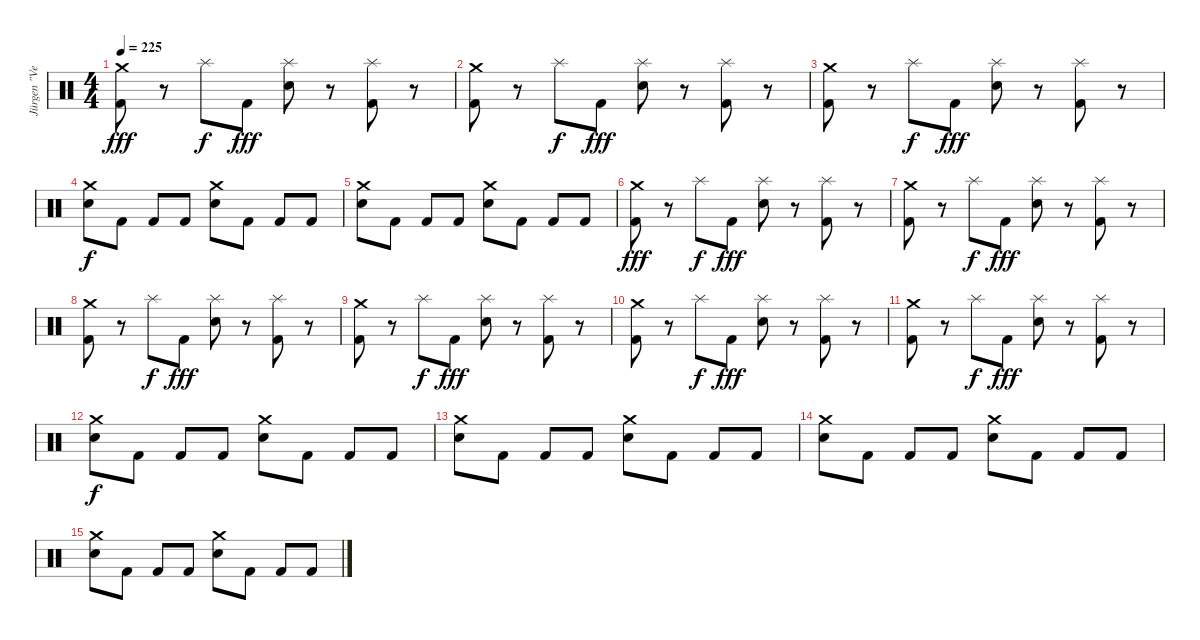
\track ("Jürgen \"Ventor\" Reil" "Jürgen \"Ve") {instrument percussion}
\staff {score}
\articulation defaults
\ts (4 4)
\tempo 225
\clef neutral
\ks c
("Crash medium (hit)" "Kick (hit) 2").8{dy fff} r.8 "Splash (hit)".8{dy f} "Kick (hit) 2".8{dy fff} ("Splash (hit)" "Electric Snare (hit)").8 r.8 ("Splash (hit)" "Kick (hit) 2").8 r.8 |
("Crash medium (hit)" "Kick (hit) 2").8 r.8 "Splash (hit)".8{dy f} "Kick (hit) 2".8{dy fff} ("Splash (hit)" "Electric Snare (hit)").8 r.8 ("Splash (hit)" "Kick (hit) 2").8 r.8 |
("Crash medium (hit)" "Kick (hit) 2").8 r.8 "Splash (hit)".8{dy f} "Kick (hit) 2".8{dy fff} ("Splash (hit)" "Electric Snare (hit)").8 r.8 ("Splash (hit)" "Kick (hit) 2").8 r.8 |
("Crash medium (hit)" "Electric Snare (hit)").8{dy f} "Kick (hit) 2".8 "Kick (hit) 2".8 "Kick (hit) 2".8 ("Crash medium (hit)" "Electric Snare (hit)").8 "Kick (hit) 2".8 "Kick (hit) 2".8 "Kick (hit) 2".8 |
("Crash medium (hit)" "Electric Snare (hit)").8 "Kick (hit) 2".8 "Kick (hit) 2".8 "Kick (hit) 2".8 ("Crash medium (hit)" "Electric Snare (hit)").8 "Kick (hit) 2".8 "Kick (hit) 2".8 "Kick (hit) 2".8 |
("Crash medium (hit)" "Kick (hit) 2").8{dy fff} r.8 "Splash (hit)".8{dy f} "Kick (hit) 2".8{dy fff} ("Splash (hit)" "Electric Snare (hit)").8 r.8 ("Splash (hit)" "Kick (hit) 2").8 r.8 |
("Crash medium (hit)" "Kick (hit) 2").8 r.8 "Splash (hit)".8{dy f} "Kick (hit) 2".8{dy fff} ("Splash (hit)" "Electric Snare (hit)").8 r.8 ("Splash (hit)" "Kick (hit) 2").8 r.8 |
("Crash medium (hit)" "Kick (hit) 2").8 r.8 "Splash (hit)".8{dy f} "Kick (hit) 2".8{dy fff} ("Splash (hit)" "Electric Snare (hit)").8 r.8 ("Splash (hit)" "Kick (hit) 2").8 r.8 |
("Crash medium (hit)" "Kick (hit) 2").8 r.8 "Splash (hit)".8{dy f} "Kick (hit) 2".8{dy fff} ("Splash (hit)" "Electric Snare (hit)").8 r.8 ("Splash (hit)" "Kick (hit) 2").8 r.8 |
("Crash medium (hit)" "Kick (hit) 2").8 r.8 "Splash (hit)".8{dy f} "Kick (hit) 2".8{dy fff} ("Splash (hit)" "Electric Snare (hit)").8 r.8 ("Splash (hit)" "Kick (hit) 2").8 r.8 |
("Crash medium (hit)" "Kick (hit) 2").8 r.8 "Splash (hit)".8{dy f} "Kick (hit) 2".8{dy fff} ("Splash (hit)" "Electric Snare (hit)").8 r.8 ("Splash (hit)" "Kick (hit) 2").8 r.8 |
("Crash medium (hit)" "Electric Snare (hit)").8{dy f} "Kick (hit) 2".8 "Kick (hit) 2".8 "Kick (hit) 2".8 ("Crash medium (hit)" "Electric Snare (hit)").8 "Kick (hit) 2".8 "Kick (hit) 2".8 "Kick (hit) 2".8 |
("Crash medium (hit)" "Electric Snare (hit)").8 "Kick (hit) 2".8 "Kick (hit) 2".8 "Kick (hit) 2".8 ("Crash medium (hit)" "Electric Snare (hit)").8 "Kick (hit) 2".8 "Kick (hit) 2".8 "Kick (hit) 2".8 |
("Crash medium (hit)" "Electric Snare (hit)").8 "Kick (hit) 2".8 "Kick (hit) 2".8 "Kick (hit) 2".8 ("Crash medium (hit)" "Electric Snare (hit)").8 "Kick (hit) 2".8 "Kick (hit) 2".8 "Kick (hit) 2".8 |
("Crash medium (hit)" "Electric Snare (hit)").8 "Kick (hit) 2".8 "Kick (hit) 2".8 "Kick (hit) 2".8 ("Crash medium (hit)" "Electric Snare (hit)").8 "Kick (hit) 2".8 "Kick (hit) 2".8 "Kick (hit) 2".8
